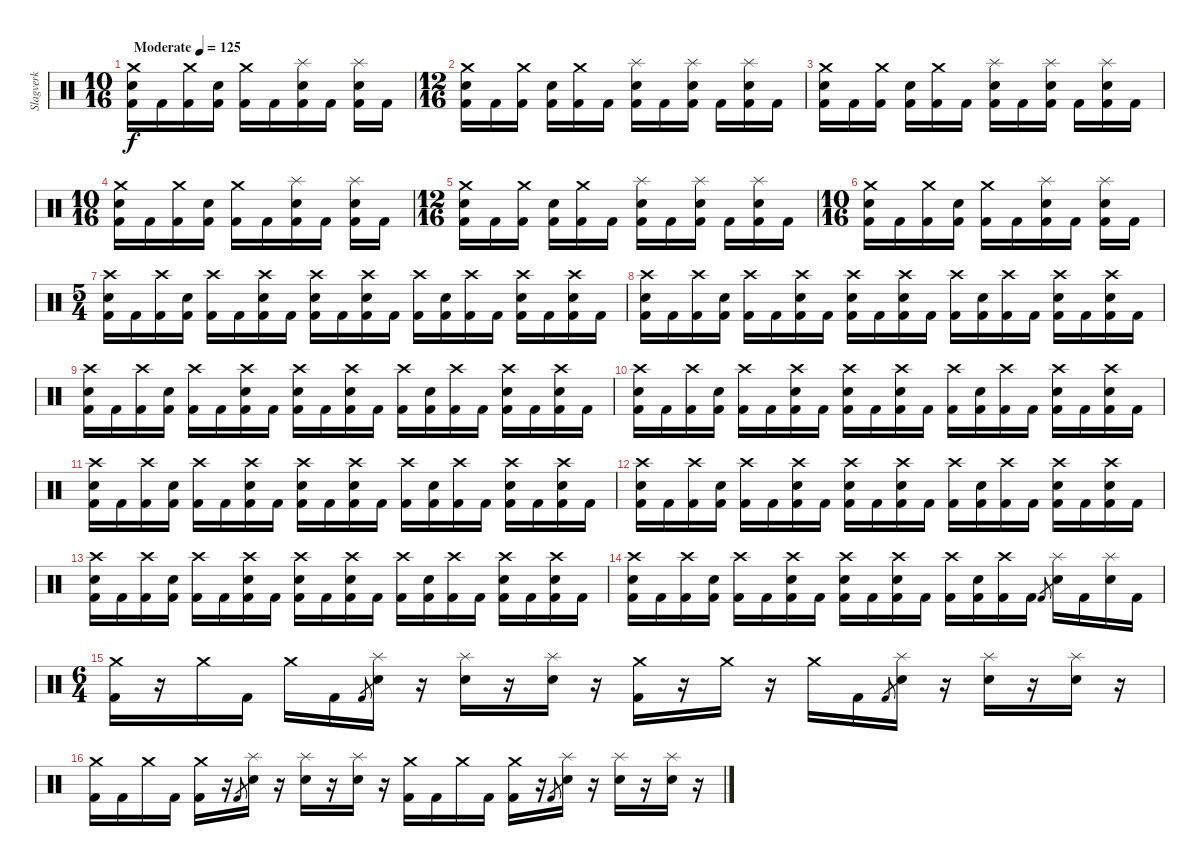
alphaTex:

\track ("Slagverk" "Slagverk") {instrument percussion}
\staff {score}
\articulation defaults
\ts (10 16)
\tempo (125 "Moderate")
\clef neutral
\ks c
("Crash medium (hit)" "Electric Snare (hit)" "Kick (hit) 2").16{dy f} "Kick (hit) 2".16 ("Crash medium (hit)" "Kick (hit) 2").16 ("Electric Snare (hit)" "Kick (hit) 2").16 ("Crash medium (hit)" "Kick (hit) 2").16 "Kick (hit) 2".16 ("Splash (hit)" "Electric Snare (hit)" "Kick (hit) 2").16 "Kick (hit) 2".16 ("Splash (hit)" "Electric Snare (hit)" "Kick (hit) 2").16 "Kick (hit) 2".16 |
\ts (12 16)
("Crash medium (hit)" "Electric Snare (hit)" "Kick (hit) 2").16 "Kick (hit) 2".16 ("Crash medium (hit)" "Kick (hit) 2").16 ("Electric Snare (hit)" "Kick (hit) 2").16 ("Crash medium (hit)" "Kick (hit) 2").16 "Kick (hit) 2".16 ("Splash (hit)" "Electric Snare (hit)" "Kick (hit) 2").16 "Kick (hit) 2".16 ("Splash (hit)" "Electric Snare (hit)" "Kick (hit) 2").16 "Kick (hit) 2".16 ("Splash (hit)" "Electric Snare (hit)" "Kick (hit) 2").16 "Kick (hit) 2".16 |
("Crash medium (hit)" "Electric Snare (hit)" "Kick (hit) 2").16 "Kick (hit) 2".16 ("Crash medium (hit)" "Kick (hit) 2").16 ("Electric Snare (hit)" "Kick (hit) 2").16 ("Crash medium (hit)" "Kick (hit) 2").16 "Kick (hit) 2".16 ("Splash (hit)" "Electric Snare (hit)" "Kick (hit) 2").16 "Kick (hit) 2".16 ("Splash (hit)" "Electric Snare (hit)" "Kick (hit) 2").16 "Kick (hit) 2".16 ("Splash (hit)" "Electric Snare (hit)" "Kick (hit) 2").16 "Kick (hit) 2".16 |
\ts (10 16)
("Crash medium (hit)" "Electric Snare (hit)" "Kick (hit) 2").16 "Kick (hit) 2".16 ("Crash medium (hit)" "Kick (hit) 2").16 ("Electric Snare (hit)" "Kick (hit) 2").16 ("Crash medium (hit)" "Kick (hit) 2").16 "Kick (hit) 2".16 ("Splash (hit)" "Electric Snare (hit)" "Kick (hit) 2").16 "Kick (hit) 2".16 ("Splash (hit)" "Electric Snare (hit)" "Kick (hit) 2").16 "Kick (hit) 2".16 |
\ts (12 16)
("Crash medium (hit)" "Electric Snare (hit)" "Kick (hit) 2").16 "Kick (hit) 2".16 ("Crash medium (hit)" "Kick (hit) 2").16 ("Electric Snare (hit)" "Kick (hit) 2").16 ("Crash medium (hit)" "Kick (hit) 2").16 "Kick (hit) 2".16 ("Splash (hit)" "Electric Snare (hit)" "Kick (hit) 2").16 "Kick (hit) 2".16 ("Splash (hit)" "Electric Snare (hit)" "Kick (hit) 2").16 "Kick (hit) 2".16 ("Splash (hit)" "Electric Snare (hit)" "Kick (hit) 2").16 "Kick (hit) 2".16 |
\ts (10 16)
("Crash medium (hit)" "Electric Snare (hit)" "Kick (hit) 2").16 "Kick (hit) 2".16 ("Crash medium (hit)" "Kick (hit) 2").16 ("Electric Snare (hit)" "Kick (hit) 2").16 ("Crash medium (hit)" "Kick (hit) 2").16 "Kick (hit) 2".16 ("Splash (hit)" "Electric Snare (hit)" "Kick (hit) 2").16 "Kick (hit) 2".16 ("Splash (hit)" "Electric Snare (hit)" "Kick (hit) 2").16 "Kick (hit) 2".16 |
\ts (5 4)
("Crash high (hit)" "Electric Snare (hit)" "Kick (hit) 2").16 "Kick (hit) 2".16 ("Crash high (hit)" "Kick (hit) 2").16 ("Electric Snare (hit)" "Kick (hit) 2").16 ("Crash high (hit)" "Kick (hit) 2").16 "Kick (hit) 2".16 ("Crash high (hit)" "Electric Snare (hit)" "Kick (hit) 2").16 "Kick (hit) 2".16 ("Crash high (hit)" "Electric Snare (hit)" "Kick (hit) 2").16 "Kick (hit) 2".16 ("Crash high (hit)" "Electric Snare (hit)" "Kick (hit) 2").16 "Kick (hit) 2".16 ("Crash high (hit)" "Kick (hit) 2").16 ("Electric Snare (hit)" "Kick (hit) 2").16 ("Crash high (hit)" "Kick (hit) 2").16 "Kick (hit) 2".16 ("Crash high (hit)" "Electric Snare (hit)" "Kick (hit) 2").16 "Kick (hit) 2".16 ("Crash high (hit)" "Electric Snare (hit)" "Kick (hit) 2").16 "Kick (hit) 2".16 |
("Crash high (hit)" "Electric Snare (hit)" "Kick (hit) 2").16 "Kick (hit) 2".16 ("Crash high (hit)" "Kick (hit) 2").16 ("Electric Snare (hit)" "Kick (hit) 2").16 ("Crash high (hit)" "Kick (hit) 2").16 "Kick (hit) 2".16 ("Crash high (hit)" "Electric Snare (hit)" "Kick (hit) 2").16 "Kick (hit) 2".16 ("Crash high (hit)" "Electric Snare (hit)" "Kick (hit) 2").16 "Kick (hit) 2".16 ("Crash high (hit)" "Electric Snare (hit)" "Kick (hit) 2").16 "Kick (hit) 2".16 ("Crash high (hit)" "Kick (hit) 2").16 ("Electric Snare (hit)" "Kick (hit) 2").16 ("Crash high (hit)" "Kick (hit) 2").16 "Kick (hit) 2".16 ("Crash high (hit)" "Electric Snare (hit)" "Kick (hit) 2").16 "Kick (hit) 2".16 ("Crash high (hit)" "Electric Snare (hit)" "Kick (hit) 2").16 "Kick (hit) 2".16 |
("Crash high (hit)" "Electric Snare (hit)" "Kick (hit) 2").16 "Kick (hit) 2".16 ("Crash high (hit)" "Kick (hit) 2").16 ("Electric Snare (hit)" "Kick (hit) 2").16 ("Crash high (hit)" "Kick (hit) 2").16 "Kick (hit) 2".16 ("Crash high (hit)" "Electric Snare (hit)" "Kick (hit) 2").16 "Kick (hit) 2".16 ("Crash high (hit)" "Electric Snare (hit)" "Kick (hit) 2").16 "Kick (hit) 2".16 ("Crash high (hit)" "Electric Snare (hit)" "Kick (hit) 2").16 "Kick (hit) 2".16 ("Crash high (hit)" "Kick (hit) 2").16 ("Electric Snare (hit)" "Kick (hit) 2").16 ("Crash high (hit)" "Kick (hit) 2").16 "Kick (hit) 2".16 ("Crash high (hit)" "Electric Snare (hit)" "Kick (hit) 2").16 "Kick (hit) 2".16 ("Crash high (hit)" "Electric Snare (hit)" "Kick (hit) 2").16 "Kick (hit) 2".16 |
("Crash high (hit)" "Electric Snare (hit)" "Kick (hit) 2").16 "Kick (hit) 2".16 ("Crash high (hit)" "Kick (hit) 2").16 ("Electric Snare (hit)" "Kick (hit) 2").16 ("Crash high (hit)" "Kick (hit) 2").16 "Kick (hit) 2".16 ("Crash high (hit)" "Electric Snare (hit)" "Kick (hit) 2").16 "Kick (hit) 2".16 ("Crash high (hit)" "Electric Snare (hit)" "Kick (hit) 2").16 "Kick (hit) 2".16 ("Crash high (hit)" "Electric Snare (hit)" "Kick (hit) 2").16 "Kick (hit) 2".16 ("Crash high (hit)" "Kick (hit) 2").16 ("Electric Snare (hit)" "Kick (hit) 2").16 ("Crash high (hit)" "Kick (hit) 2").16 "Kick (hit) 2".16 ("Crash high (hit)" "Electric Snare (hit)" "Kick (hit) 2").16 "Kick (hit) 2".16 ("Crash high (hit)" "Electric Snare (hit)" "Kick (hit) 2").16 "Kick (hit) 2".16 |
("Crash high (hit)" "Electric Snare (hit)" "Kick (hit) 2").16 "Kick (hit) 2".16 ("Crash high (hit)" "Kick (hit) 2").16 ("Electric Snare (hit)" "Kick (hit) 2").16 ("Crash high (hit)" "Kick (hit) 2").16 "Kick (hit) 2".16 ("Crash high (hit)" "Electric Snare (hit)" "Kick (hit) 2").16 "Kick (hit) 2".16 ("Crash high (hit)" "Electric Snare (hit)" "Kick (hit) 2").16 "Kick (hit) 2".16 ("Crash high (hit)" "Electric Snare (hit)" "Kick (hit) 2").16 "Kick (hit) 2".16 ("Crash high (hit)" "Kick (hit) 2").16 ("Electric Snare (hit)" "Kick (hit) 2").16 ("Crash high (hit)" "Kick (hit) 2").16 "Kick (hit) 2".16 ("Crash high (hit)" "Electric Snare (hit)" "Kick (hit) 2").16 "Kick (hit) 2".16 ("Crash high (hit)" "Electric Snare (hit)" "Kick (hit) 2").16 "Kick (hit) 2".16 |
("Crash high (hit)" "Electric Snare (hit)" "Kick (hit) 2").16 "Kick (hit) 2".16 ("Crash high (hit)" "Kick (hit) 2").16 ("Electric Snare (hit)" "Kick (hit) 2").16 ("Crash high (hit)" "Kick (hit) 2").16 "Kick (hit) 2".16 ("Crash high (hit)" "Electric Snare (hit)" "Kick (hit) 2").16 "Kick (hit) 2".16 ("Crash high (hit)" "Electric Snare (hit)" "Kick (hit) 2").16 "Kick (hit) 2".16 ("Crash high (hit)" "Electric Snare (hit)" "Kick (hit) 2").16 "Kick (hit) 2".16 ("Crash high (hit)" "Kick (hit) 2").16 ("Electric Snare (hit)" "Kick (hit) 2").16 ("Crash high (hit)" "Kick (hit) 2").16 "Kick (hit) 2".16 ("Crash high (hit)" "Electric Snare (hit)" "Kick (hit) 2").16 "Kick (hit) 2".16 ("Crash high (hit)" "Electric Snare (hit)" "Kick (hit) 2").16 "Kick (hit) 2".16 |
("Crash high (hit)" "Electric Snare (hit)" "Kick (hit) 2").16 "Kick (hit) 2".16 ("Crash high (hit)" "Kick (hit) 2").16 ("Electric Snare (hit)" "Kick (hit) 2").16 ("Crash high (hit)" "Kick (hit) 2").16 "Kick (hit) 2".16 ("Crash high (hit)" "Electric Snare (hit)" "Kick (hit) 2").16 "Kick (hit) 2".16 ("Crash high (hit)" "Electric Snare (hit)" "Kick (hit) 2").16 "Kick (hit) 2".16 ("Crash high (hit)" "Electric Snare (hit)" "Kick (hit) 2").16 "Kick (hit) 2".16 ("Crash high (hit)" "Kick (hit) 2").16 ("Electric Snare (hit)" "Kick (hit) 2").16 ("Crash high (hit)" "Kick (hit) 2").16 "Kick (hit) 2".16 ("Crash high (hit)" "Electric Snare (hit)" "Kick (hit) 2").16 "Kick (hit) 2".16 ("Crash high (hit)" "Electric Snare (hit)" "Kick (hit) 2").16 "Kick (hit) 2".16 |
("Crash high (hit)" "Electric Snare (hit)" "Kick (hit) 2").16 "Kick (hit) 2".16 ("Crash high (hit)" "Kick (hit) 2").16 ("Electric Snare (hit)" "Kick (hit) 2").16 ("Crash high (hit)" "Kick (hit) 2").16 "Kick (hit) 2".16 ("Crash high (hit)" "Electric Snare (hit)" "Kick (hit) 2").16 "Kick (hit) 2".16 ("Crash high (hit)" "Electric Snare (hit)" "Kick (hit) 2").16 "Kick (hit) 2".16 ("Crash high (hit)" "Electric Snare (hit)" "Kick (hit) 2").16 "Kick (hit) 2".16 ("Crash high (hit)" "Kick (hit) 2").16 ("Electric Snare (hit)" "Kick (hit) 2").16 ("Crash high (hit)" "Kick (hit) 2").16 "Kick (hit) 2".16 "Kick (hit) 2".8{gr} ("Splash (hit)" "Electric Snare (hit)").16 "Kick (hit) 2".16 ("Splash (hit)" "Electric Snare (hit)").16 "Kick (hit) 2".16 |
\ts (6 4)
("Crash medium (hit)" "Kick (hit) 2").16 r.16 "Crash medium (hit)".16 "Kick (hit) 2".16 "Crash medium (hit)".16 "Kick (hit) 2".16 "Kick (hit) 2".8{gr} ("Splash (hit)" "Electric Snare (hit)").16 r.16 ("Splash (hit)" "Electric Snare (hit)").16 r.16 ("Splash (hit)" "Electric Snare (hit)").16 r.16 ("Crash medium (hit)" "Kick (hit) 2").16 r.16 "Crash medium (hit)".16 r.16 "Crash medium (hit)".16 "Kick (hit) 2".16 "Kick (hit) 2".8{gr} ("Splash (hit)" "Electric Snare (hit)").16 r.16 ("Splash (hit)" "Electric Snare (hit)").16 r.16 ("Splash (hit)" "Electric Snare (hit)").16 r.16 |
("Crash medium (hit)" "Kick (hit) 2").16 "Kick (hit) 2".16 "Crash medium (hit)".16 "Kick (hit) 2".16 ("Crash medium (hit)" "Kick (hit) 2").16 r.16 "Kick (hit) 2".8{gr} ("Splash (hit)" "Electric Snare (hit)").16 r.16 ("Splash (hit)" "Electric Snare (hit)").16 r.16 ("Splash (hit)" "Electric Snare (hit)").16 r.16 ("Crash medium (hit)" "Kick (hit) 2").16 "Kick (hit) 2".16 "Crash medium (hit)".16 "Kick (hit) 2".16 ("Crash medium (hit)" "Kick (hit) 2").16 r.16 "Kick (hit) 2".8{gr} ("Splash (hit)" "Electric Snare (hit)").16 r.16 ("Splash (hit)" "Electric Snare (hit)").16 r.16 ("Splash (hit)" "Electric Snare (hit)").16 r.16
